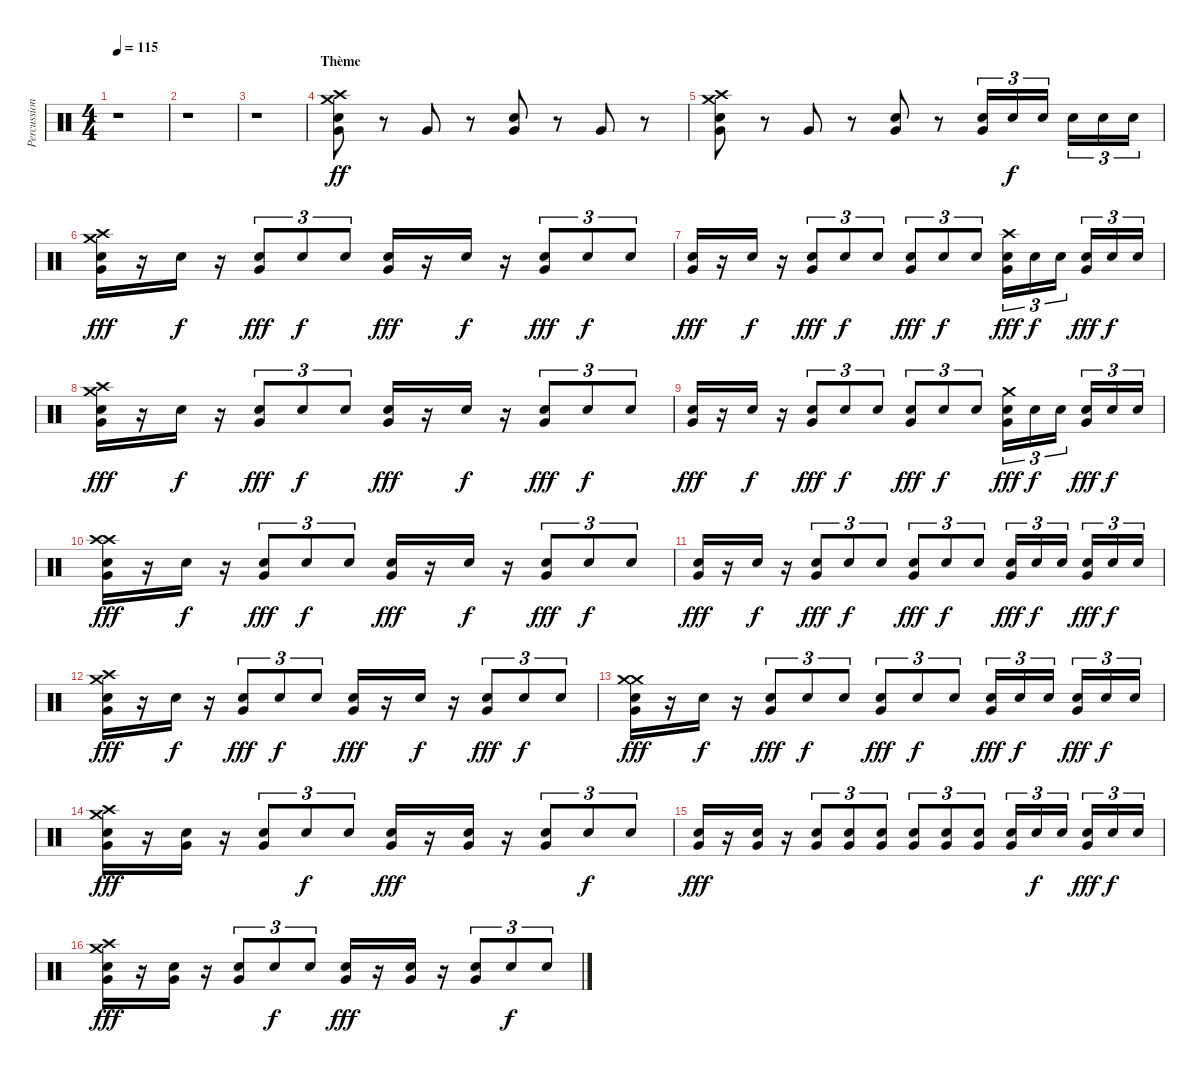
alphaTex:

\track ("Percussions" "Percussion") {instrument percussion}
\staff {score}
\articulation defaults
\ts (4 4)
\tempo 115
\clef neutral
\ks c
r.1{dy fff} |
r.1 |
r.1 |
\section ("" "Thème")
("Crash medium (hit)" "Crash high (hit)" "Electric Snare (hit)" "Very Low Tom (hit)").8{dy ff} r.8 "Very Low Tom (hit)".8 r.8 ("Electric Snare (hit)" "Very Low Tom (hit)").8 r.8 "Very Low Tom (hit)".8 r.8 |
("Crash medium (hit)" "Crash high (hit)" "Electric Snare (hit)" "Very Low Tom (hit)").8 r.8 "Very Low Tom (hit)".8 r.8 ("Electric Snare (hit)" "Very Low Tom (hit)").8 r.8 ("Electric Snare (hit)" "Very Low Tom (hit)").16{tu (3 2)} "Electric Snare (hit)".16{tu (3 2) dy f} "Electric Snare (hit)".16{tu (3 2)} "Electric Snare (hit)".16{tu (3 2)} "Electric Snare (hit)".16{tu (3 2)} "Electric Snare (hit)".16{tu (3 2)} |
("Crash medium (hit)" "Crash high (hit)" "Electric Snare (hit)" "Very Low Tom (hit)").16{dy fff} r.16 "Electric Snare (hit)".16{dy f} r.16 ("Electric Snare (hit)" "Very Low Tom (hit)").8{tu (3 2) dy fff} "Electric Snare (hit)".8{tu (3 2) dy f} "Electric Snare (hit)".8{tu (3 2)} ("Electric Snare (hit)" "Very Low Tom (hit)").16{dy fff} r.16 "Electric Snare (hit)".16{dy f} r.16 ("Electric Snare (hit)" "Very Low Tom (hit)").8{tu (3 2) dy fff} "Electric Snare (hit)".8{tu (3 2) dy f} "Electric Snare (hit)".8{tu (3 2)} |
("Electric Snare (hit)" "Very Low Tom (hit)").16{dy fff} r.16 "Electric Snare (hit)".16{dy f} r.16 ("Electric Snare (hit)" "Very Low Tom (hit)").8{tu (3 2) dy fff} "Electric Snare (hit)".8{tu (3 2) dy f} "Electric Snare (hit)".8{tu (3 2)} ("Electric Snare (hit)" "Very Low Tom (hit)").8{tu (3 2) dy fff} "Electric Snare (hit)".8{tu (3 2) dy f} "Electric Snare (hit)".8{tu (3 2)} ("Crash high (hit)" "Electric Snare (hit)" "Very Low Tom (hit)").16{tu (3 2) dy fff} "Electric Snare (hit)".16{tu (3 2) dy f} "Electric Snare (hit)".16{tu (3 2)} ("Electric Snare (hit)" "Very Low Tom (hit)").16{tu (3 2) dy fff} "Electric Snare (hit)".16{tu (3 2) dy f} "Electric Snare (hit)".16{tu (3 2)} |
("Crash medium (hit)" "Crash high (hit)" "Electric Snare (hit)" "Very Low Tom (hit)").16{dy fff} r.16 "Electric Snare (hit)".16{dy f} r.16 ("Electric Snare (hit)" "Very Low Tom (hit)").8{tu (3 2) dy fff} "Electric Snare (hit)".8{tu (3 2) dy f} "Electric Snare (hit)".8{tu (3 2)} ("Electric Snare (hit)" "Very Low Tom (hit)").16{dy fff} r.16 "Electric Snare (hit)".16{dy f} r.16 ("Electric Snare (hit)" "Very Low Tom (hit)").8{tu (3 2) dy fff} "Electric Snare (hit)".8{tu (3 2) dy f} "Electric Snare (hit)".8{tu (3 2)} |
("Electric Snare (hit)" "Very Low Tom (hit)").16{dy fff} r.16 "Electric Snare (hit)".16{dy f} r.16 ("Electric Snare (hit)" "Very Low Tom (hit)").8{tu (3 2) dy fff} "Electric Snare (hit)".8{tu (3 2) dy f} "Electric Snare (hit)".8{tu (3 2)} ("Electric Snare (hit)" "Very Low Tom (hit)").8{tu (3 2) dy fff} "Electric Snare (hit)".8{tu (3 2) dy f} "Electric Snare (hit)".8{tu (3 2)} ("Crash medium (hit)" "Electric Snare (hit)" "Very Low Tom (hit)").16{tu (3 2) dy fff} "Electric Snare (hit)".16{tu (3 2) dy f} "Electric Snare (hit)".16{tu (3 2)} ("Electric Snare (hit)" "Very Low Tom (hit)").16{tu (3 2) dy fff} "Electric Snare (hit)".16{tu (3 2) dy f} "Electric Snare (hit)".16{tu (3 2)} |
("Crash high (hit)" "Crash high (hit)" "Electric Snare (hit)" "Very Low Tom (hit)").16{dy fff} r.16 "Electric Snare (hit)".16{dy f} r.16 ("Electric Snare (hit)" "Very Low Tom (hit)").8{tu (3 2) dy fff} "Electric Snare (hit)".8{tu (3 2) dy f} "Electric Snare (hit)".8{tu (3 2)} ("Electric Snare (hit)" "Very Low Tom (hit)").16{dy fff} r.16 "Electric Snare (hit)".16{dy f} r.16 ("Electric Snare (hit)" "Very Low Tom (hit)").8{tu (3 2) dy fff} "Electric Snare (hit)".8{tu (3 2) dy f} "Electric Snare (hit)".8{tu (3 2)} |
("Electric Snare (hit)" "Very Low Tom (hit)").16{dy fff} r.16 "Electric Snare (hit)".16{dy f} r.16 ("Electric Snare (hit)" "Very Low Tom (hit)").8{tu (3 2) dy fff} "Electric Snare (hit)".8{tu (3 2) dy f} "Electric Snare (hit)".8{tu (3 2)} ("Electric Snare (hit)" "Very Low Tom (hit)").8{tu (3 2) dy fff} "Electric Snare (hit)".8{tu (3 2) dy f} "Electric Snare (hit)".8{tu (3 2)} ("Electric Snare (hit)" "Very Low Tom (hit)").16{tu (3 2) dy fff} "Electric Snare (hit)".16{tu (3 2) dy f} "Electric Snare (hit)".16{tu (3 2)} ("Electric Snare (hit)" "Very Low Tom (hit)").16{tu (3 2) dy fff} "Electric Snare (hit)".16{tu (3 2) dy f} "Electric Snare (hit)".16{tu (3 2)} |
("Crash medium (hit)" "Crash high (hit)" "Electric Snare (hit)" "Very Low Tom (hit)").16{dy fff} r.16 "Electric Snare (hit)".16{dy f} r.16 ("Electric Snare (hit)" "Very Low Tom (hit)").8{tu (3 2) dy fff} "Electric Snare (hit)".8{tu (3 2) dy f} "Electric Snare (hit)".8{tu (3 2)} ("Electric Snare (hit)" "Very Low Tom (hit)").16{dy fff} r.16 "Electric Snare (hit)".16{dy f} r.16 ("Electric Snare (hit)" "Very Low Tom (hit)").8{tu (3 2) dy fff} "Electric Snare (hit)".8{tu (3 2) dy f} "Electric Snare (hit)".8{tu (3 2)} |
("Crash medium (hit)" "Crash medium (hit)" "Electric Snare (hit)" "Very Low Tom (hit)").16{dy fff} r.16 "Electric Snare (hit)".16{dy f} r.16 ("Electric Snare (hit)" "Very Low Tom (hit)").8{tu (3 2) dy fff} "Electric Snare (hit)".8{tu (3 2) dy f} "Electric Snare (hit)".8{tu (3 2)} ("Electric Snare (hit)" "Very Low Tom (hit)").8{tu (3 2) dy fff} "Electric Snare (hit)".8{tu (3 2) dy f} "Electric Snare (hit)".8{tu (3 2)} ("Electric Snare (hit)" "Very Low Tom (hit)").16{tu (3 2) dy fff} "Electric Snare (hit)".16{tu (3 2) dy f} "Electric Snare (hit)".16{tu (3 2)} ("Electric Snare (hit)" "Very Low Tom (hit)").16{tu (3 2) dy fff} "Electric Snare (hit)".16{tu (3 2) dy f} "Electric Snare (hit)".16{tu (3 2)} |
("Crash medium (hit)" "Crash high (hit)" "Electric Snare (hit)" "Very Low Tom (hit)").16{dy fff} r.16 ("Electric Snare (hit)" "Very Low Tom (hit)").16 r.16 ("Electric Snare (hit)" "Very Low Tom (hit)").8{tu (3 2)} "Electric Snare (hit)".8{tu (3 2) dy f} "Electric Snare (hit)".8{tu (3 2)} ("Electric Snare (hit)" "Very Low Tom (hit)").16{dy fff} r.16 ("Electric Snare (hit)" "Very Low Tom (hit)").16 r.16 ("Electric Snare (hit)" "Very Low Tom (hit)").8{tu (3 2)} "Electric Snare (hit)".8{tu (3 2) dy f} "Electric Snare (hit)".8{tu (3 2)} |
("Electric Snare (hit)" "Very Low Tom (hit)").16{dy fff} r.16 ("Electric Snare (hit)" "Very Low Tom (hit)").16 r.16 ("Electric Snare (hit)" "Very Low Tom (hit)").8{tu (3 2)} ("Electric Snare (hit)" "Very Low Tom (hit)").8{tu (3 2)} ("Electric Snare (hit)" "Very Low Tom (hit)").8{tu (3 2)} ("Electric Snare (hit)" "Very Low Tom (hit)").8{tu (3 2)} ("Electric Snare (hit)" "Very Low Tom (hit)").8{tu (3 2)} ("Electric Snare (hit)" "Very Low Tom (hit)").8{tu (3 2)} ("Electric Snare (hit)" "Very Low Tom (hit)").16{tu (3 2)} "Electric Snare (hit)".16{tu (3 2) dy f} "Electric Snare (hit)".16{tu (3 2)} ("Electric Snare (hit)" "Very Low Tom (hit)").16{tu (3 2) dy fff} "Electric Snare (hit)".16{tu (3 2) dy f} "Electric Snare (hit)".16{tu (3 2)} |
("Crash medium (hit)" "Crash high (hit)" "Electric Snare (hit)" "Very Low Tom (hit)").16{dy fff} r.16 ("Electric Snare (hit)" "Very Low Tom (hit)").16 r.16 ("Electric Snare (hit)" "Very Low Tom (hit)").8{tu (3 2)} "Electric Snare (hit)".8{tu (3 2) dy f} "Electric Snare (hit)".8{tu (3 2)} ("Electric Snare (hit)" "Very Low Tom (hit)").16{dy fff} r.16 ("Electric Snare (hit)" "Very Low Tom (hit)").16 r.16 ("Electric Snare (hit)" "Very Low Tom (hit)").8{tu (3 2)} "Electric Snare (hit)".8{tu (3 2) dy f} "Electric Snare (hit)".8{tu (3 2)}
